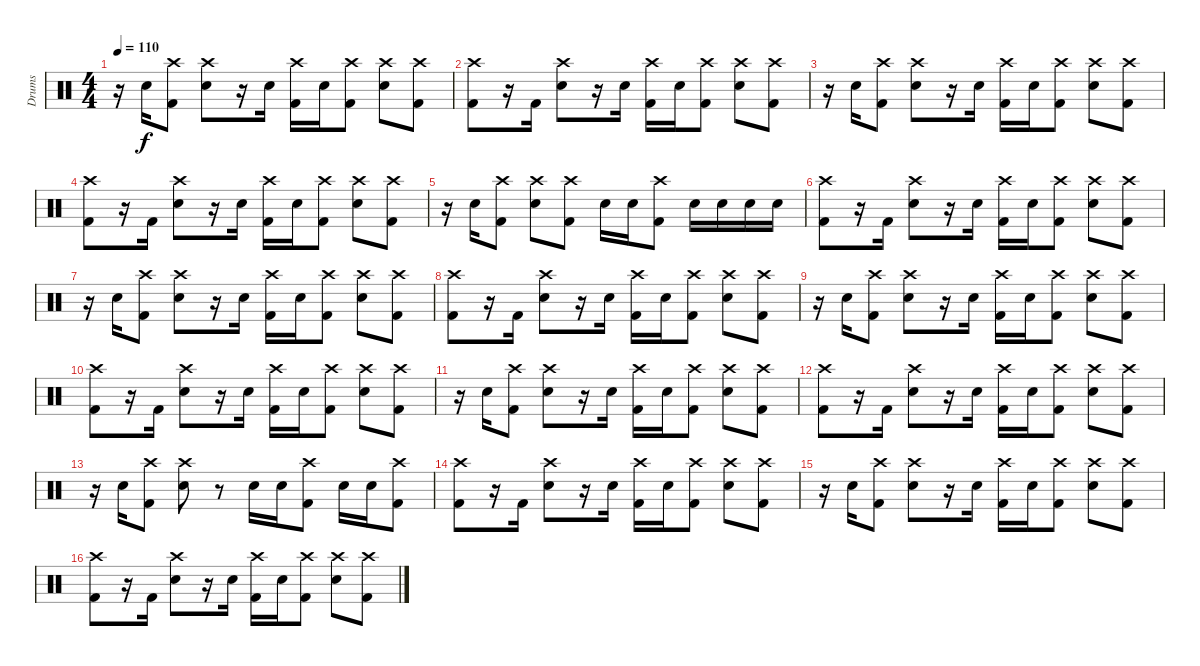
\track ("Drums" "Drums") {instrument percussion}
\staff {score}
\articulation defaults
\ts (4 4)
\tempo 110
\clef neutral
\ks c
r.16{dy f} "Electric Snare (hit)".16 ("Crash high (hit)" "Kick (hit) 2").8 ("Crash high (hit)" "Electric Snare (hit)").8 r.16 "Electric Snare (hit)".16 ("Crash high (hit)" "Kick (hit) 2").16 "Electric Snare (hit)".16 ("Crash high (hit)" "Kick (hit) 2").8 ("Crash high (hit)" "Electric Snare (hit)").8 ("Crash high (hit)" "Kick (hit) 2").8 |
("Crash high (hit)" "Kick (hit) 2").8 r.16 "Kick (hit) 2".16 ("Crash high (hit)" "Electric Snare (hit)").8 r.16 "Electric Snare (hit)".16 ("Crash high (hit)" "Kick (hit) 2").16 "Electric Snare (hit)".16 ("Crash high (hit)" "Kick (hit) 2").8 ("Crash high (hit)" "Electric Snare (hit)").8 ("Crash high (hit)" "Kick (hit) 2").8 |
r.16 "Electric Snare (hit)".16 ("Crash high (hit)" "Kick (hit) 2").8 ("Crash high (hit)" "Electric Snare (hit)").8 r.16 "Electric Snare (hit)".16 ("Crash high (hit)" "Kick (hit) 2").16 "Electric Snare (hit)".16 ("Crash high (hit)" "Kick (hit) 2").8 ("Crash high (hit)" "Electric Snare (hit)").8 ("Crash high (hit)" "Kick (hit) 2").8 |
("Crash high (hit)" "Kick (hit) 2").8 r.16 "Kick (hit) 2".16 ("Crash high (hit)" "Electric Snare (hit)").8 r.16 "Electric Snare (hit)".16 ("Crash high (hit)" "Kick (hit) 2").16 "Electric Snare (hit)".16 ("Crash high (hit)" "Kick (hit) 2").8 ("Crash high (hit)" "Electric Snare (hit)").8 ("Crash high (hit)" "Kick (hit) 2").8 |
r.16 "Electric Snare (hit)".16 ("Crash high (hit)" "Kick (hit) 2").8 ("Crash high (hit)" "Electric Snare (hit)").8 ("Crash high (hit)" "Kick (hit) 2").8 "Electric Snare (hit)".16 "Electric Snare (hit)".16 ("Crash high (hit)" "Kick (hit) 2").8 "Electric Snare (hit)".16 "Electric Snare (hit)".16 "Electric Snare (hit)".16 "Electric Snare (hit)".16 |
("Crash high (hit)" "Kick (hit) 2").8 r.16 "Kick (hit) 2".16 ("Crash high (hit)" "Electric Snare (hit)").8 r.16 "Electric Snare (hit)".16 ("Crash high (hit)" "Kick (hit) 2").16 "Electric Snare (hit)".16 ("Crash high (hit)" "Kick (hit) 2").8 ("Crash high (hit)" "Electric Snare (hit)").8 ("Crash high (hit)" "Kick (hit) 2").8 |
r.16 "Electric Snare (hit)".16 ("Crash high (hit)" "Kick (hit) 2").8 ("Crash high (hit)" "Electric Snare (hit)").8 r.16 "Electric Snare (hit)".16 ("Crash high (hit)" "Kick (hit) 2").16 "Electric Snare (hit)".16 ("Crash high (hit)" "Kick (hit) 2").8 ("Crash high (hit)" "Electric Snare (hit)").8 ("Crash high (hit)" "Kick (hit) 2").8 |
("Crash high (hit)" "Kick (hit) 2").8 r.16 "Kick (hit) 2".16 ("Crash high (hit)" "Electric Snare (hit)").8 r.16 "Electric Snare (hit)".16 ("Crash high (hit)" "Kick (hit) 2").16 "Electric Snare (hit)".16 ("Crash high (hit)" "Kick (hit) 2").8 ("Crash high (hit)" "Electric Snare (hit)").8 ("Crash high (hit)" "Kick (hit) 2").8 |
r.16 "Electric Snare (hit)".16 ("Crash high (hit)" "Kick (hit) 2").8 ("Crash high (hit)" "Electric Snare (hit)").8 r.16 "Electric Snare (hit)".16 ("Crash high (hit)" "Kick (hit) 2").16 "Electric Snare (hit)".16 ("Crash high (hit)" "Kick (hit) 2").8 ("Crash high (hit)" "Electric Snare (hit)").8 ("Crash high (hit)" "Kick (hit) 2").8 |
("Crash high (hit)" "Kick (hit) 2").8 r.16 "Kick (hit) 2".16 ("Crash high (hit)" "Electric Snare (hit)").8 r.16 "Electric Snare (hit)".16 ("Crash high (hit)" "Kick (hit) 2").16 "Electric Snare (hit)".16 ("Crash high (hit)" "Kick (hit) 2").8 ("Crash high (hit)" "Electric Snare (hit)").8 ("Crash high (hit)" "Kick (hit) 2").8 |
r.16 "Electric Snare (hit)".16 ("Crash high (hit)" "Kick (hit) 2").8 ("Crash high (hit)" "Electric Snare (hit)").8 r.16 "Electric Snare (hit)".16 ("Crash high (hit)" "Kick (hit) 2").16 "Electric Snare (hit)".16 ("Crash high (hit)" "Kick (hit) 2").8 ("Crash high (hit)" "Electric Snare (hit)").8 ("Crash high (hit)" "Kick (hit) 2").8 |
("Crash high (hit)" "Kick (hit) 2").8 r.16 "Kick (hit) 2".16 ("Crash high (hit)" "Electric Snare (hit)").8 r.16 "Electric Snare (hit)".16 ("Crash high (hit)" "Kick (hit) 2").16 "Electric Snare (hit)".16 ("Crash high (hit)" "Kick (hit) 2").8 ("Crash high (hit)" "Electric Snare (hit)").8 ("Crash high (hit)" "Kick (hit) 2").8 |
r.16 "Electric Snare (hit)".16 ("Crash high (hit)" "Kick (hit) 2").8 ("Crash high (hit)" "Electric Snare (hit)").8 r.8 "Electric Snare (hit)".16 "Electric Snare (hit)".16 ("Crash high (hit)" "Kick (hit) 2").8 "Electric Snare (hit)".16 "Electric Snare (hit)".16 ("Crash high (hit)" "Kick (hit) 2").8 |
("Crash high (hit)" "Kick (hit) 2").8 r.16 "Kick (hit) 2".16 ("Crash high (hit)" "Electric Snare (hit)").8 r.16 "Electric Snare (hit)".16 ("Crash high (hit)" "Kick (hit) 2").16 "Electric Snare (hit)".16 ("Crash high (hit)" "Kick (hit) 2").8 ("Crash high (hit)" "Electric Snare (hit)").8 ("Crash high (hit)" "Kick (hit) 2").8 |
r.16 "Electric Snare (hit)".16 ("Crash high (hit)" "Kick (hit) 2").8 ("Crash high (hit)" "Electric Snare (hit)").8 r.16 "Electric Snare (hit)".16 ("Crash high (hit)" "Kick (hit) 2").16 "Electric Snare (hit)".16 ("Crash high (hit)" "Kick (hit) 2").8 ("Crash high (hit)" "Electric Snare (hit)").8 ("Crash high (hit)" "Kick (hit) 2").8 |
("Crash high (hit)" "Kick (hit) 2").8 r.16 "Kick (hit) 2".16 ("Crash high (hit)" "Electric Snare (hit)").8 r.16 "Electric Snare (hit)".16 ("Crash high (hit)" "Kick (hit) 2").16 "Electric Snare (hit)".16 ("Crash high (hit)" "Kick (hit) 2").8 ("Crash high (hit)" "Electric Snare (hit)").8 ("Crash high (hit)" "Kick (hit) 2").8
